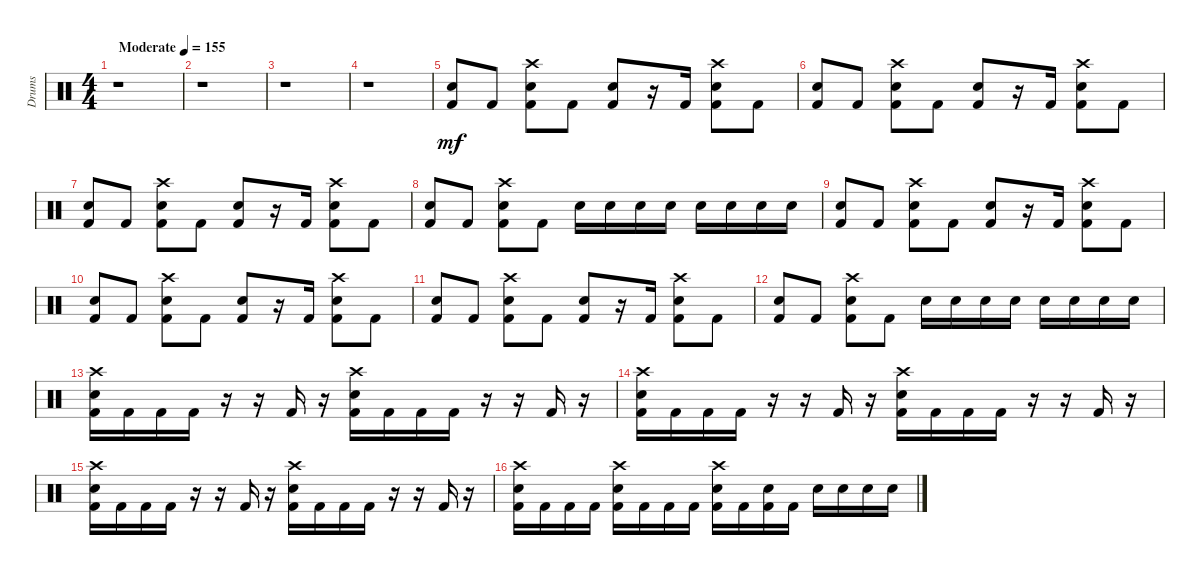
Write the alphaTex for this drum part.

\track ("Drums" "Drums") {instrument percussion}
\staff {score}
\articulation defaults
\ts (4 4)
\tempo (155 "Moderate")
\clef neutral
\ks c
r.1{dy mf} |
r.1 |
r.1 |
r.1 |
("Kick (hit) 2" "Electric Snare (hit)").8 "Kick (hit) 2".8 ("Kick (hit) 2" "Electric Snare (hit)" "Crash high (hit)").8 "Kick (hit) 2".8 ("Kick (hit) 2" "Electric Snare (hit)").8 r.16 "Kick (hit) 2".16 ("Kick (hit) 2" "Electric Snare (hit)" "Crash high (hit)").8 "Kick (hit) 2".8 |
("Kick (hit) 2" "Electric Snare (hit)").8 "Kick (hit) 2".8 ("Kick (hit) 2" "Electric Snare (hit)" "Crash high (hit)").8 "Kick (hit) 2".8 ("Kick (hit) 2" "Electric Snare (hit)").8 r.16 "Kick (hit) 2".16 ("Kick (hit) 2" "Electric Snare (hit)" "Crash high (hit)").8 "Kick (hit) 2".8 |
("Kick (hit) 2" "Electric Snare (hit)").8 "Kick (hit) 2".8 ("Kick (hit) 2" "Electric Snare (hit)" "Crash high (hit)").8 "Kick (hit) 2".8 ("Kick (hit) 2" "Electric Snare (hit)").8 r.16 "Kick (hit) 2".16 ("Kick (hit) 2" "Electric Snare (hit)" "Crash high (hit)").8 "Kick (hit) 2".8 |
("Kick (hit) 2" "Electric Snare (hit)").8 "Kick (hit) 2".8 ("Kick (hit) 2" "Electric Snare (hit)" "Crash high (hit)").8 "Kick (hit) 2".8 "Electric Snare (hit)".16 "Electric Snare (hit)".16 "Electric Snare (hit)".16 "Electric Snare (hit)".16 "Electric Snare (hit)".16 "Electric Snare (hit)".16 "Electric Snare (hit)".16 "Electric Snare (hit)".16 |
("Kick (hit) 2" "Electric Snare (hit)").8 "Kick (hit) 2".8 ("Kick (hit) 2" "Electric Snare (hit)" "Crash high (hit)").8 "Kick (hit) 2".8 ("Kick (hit) 2" "Electric Snare (hit)").8 r.16 "Kick (hit) 2".16 ("Kick (hit) 2" "Electric Snare (hit)" "Crash high (hit)").8 "Kick (hit) 2".8 |
("Kick (hit) 2" "Electric Snare (hit)").8 "Kick (hit) 2".8 ("Kick (hit) 2" "Electric Snare (hit)" "Crash high (hit)").8 "Kick (hit) 2".8 ("Kick (hit) 2" "Electric Snare (hit)").8 r.16 "Kick (hit) 2".16 ("Kick (hit) 2" "Electric Snare (hit)" "Crash high (hit)").8 "Kick (hit) 2".8 |
("Kick (hit) 2" "Electric Snare (hit)").8 "Kick (hit) 2".8 ("Kick (hit) 2" "Electric Snare (hit)" "Crash high (hit)").8 "Kick (hit) 2".8 ("Kick (hit) 2" "Electric Snare (hit)").8 r.16 "Kick (hit) 2".16 ("Kick (hit) 2" "Electric Snare (hit)" "Crash high (hit)").8 "Kick (hit) 2".8 |
("Kick (hit) 2" "Electric Snare (hit)").8 "Kick (hit) 2".8 ("Kick (hit) 2" "Electric Snare (hit)" "Crash high (hit)").8 "Kick (hit) 2".8 "Electric Snare (hit)".16 "Electric Snare (hit)".16 "Electric Snare (hit)".16 "Electric Snare (hit)".16 "Electric Snare (hit)".16 "Electric Snare (hit)".16 "Electric Snare (hit)".16 "Electric Snare (hit)".16 |
("Kick (hit) 2" "Electric Snare (hit)" "Crash high (hit)").16 "Kick (hit) 2".16 "Kick (hit) 2".16 "Kick (hit) 2".16 r.16 r.16 "Kick (hit) 2".16 r.16 ("Kick (hit) 2" "Electric Snare (hit)" "Crash high (hit)").16 "Kick (hit) 2".16 "Kick (hit) 2".16 "Kick (hit) 2".16 r.16 r.16 "Kick (hit) 2".16 r.16 |
("Kick (hit) 2" "Electric Snare (hit)" "Crash high (hit)").16 "Kick (hit) 2".16 "Kick (hit) 2".16 "Kick (hit) 2".16 r.16 r.16 "Kick (hit) 2".16 r.16 ("Kick (hit) 2" "Electric Snare (hit)" "Crash high (hit)").16 "Kick (hit) 2".16 "Kick (hit) 2".16 "Kick (hit) 2".16 r.16 r.16 "Kick (hit) 2".16 r.16 |
("Kick (hit) 2" "Electric Snare (hit)" "Crash high (hit)").16 "Kick (hit) 2".16 "Kick (hit) 2".16 "Kick (hit) 2".16 r.16 r.16 "Kick (hit) 2".16 r.16 ("Kick (hit) 2" "Electric Snare (hit)" "Crash high (hit)").16 "Kick (hit) 2".16 "Kick (hit) 2".16 "Kick (hit) 2".16 r.16 r.16 "Kick (hit) 2".16 r.16 |
("Kick (hit) 2" "Electric Snare (hit)" "Crash high (hit)").16 "Kick (hit) 2".16 "Kick (hit) 2".16 "Kick (hit) 2".16 ("Kick (hit) 2" "Electric Snare (hit)" "Crash high (hit)").16 "Kick (hit) 2".16 "Kick (hit) 2".16 "Kick (hit) 2".16 ("Kick (hit) 2" "Electric Snare (hit)" "Crash high (hit)").16 "Kick (hit) 2".16 ("Kick (hit) 2" "Electric Snare (hit)").16 "Kick (hit) 2".16 "Electric Snare (hit)".16 "Electric Snare (hit)".16 "Electric Snare (hit)".16 "Electric Snare (hit)".16
